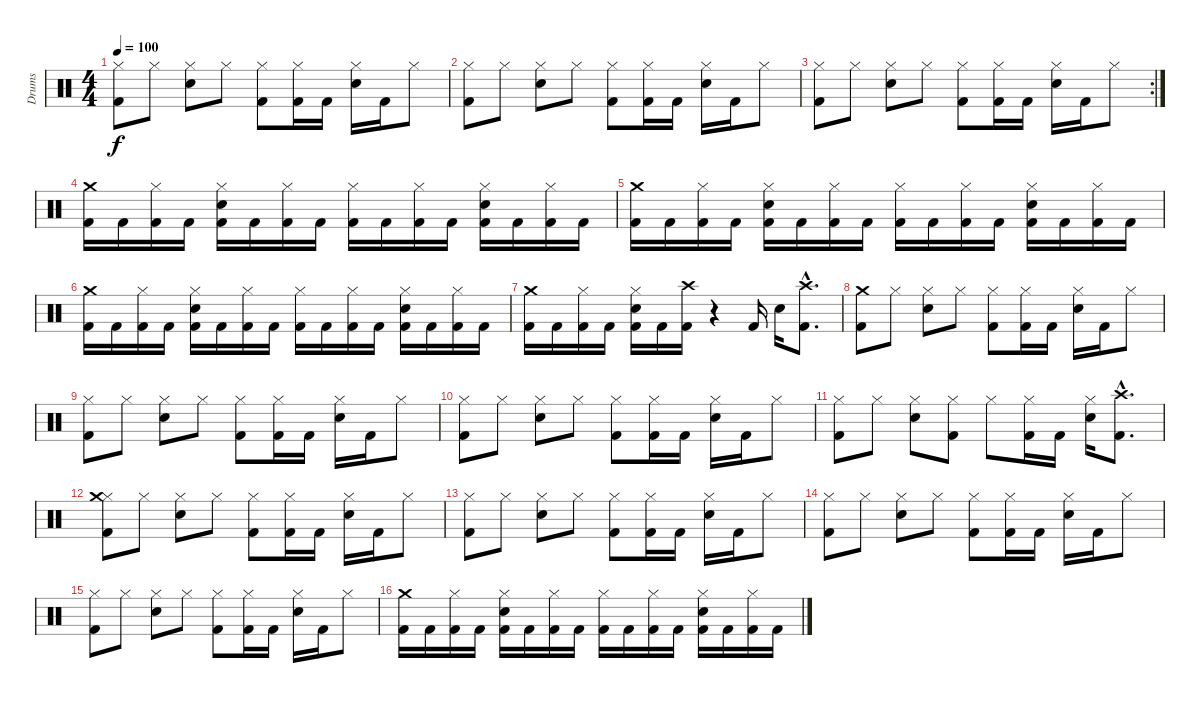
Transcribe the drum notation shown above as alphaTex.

\track ("Drums" "Drums") {instrument percussion}
\staff {score}
\articulation defaults
\ts (4 4)
\tempo 100
\clef neutral
\ks c
("Kick (hit) 2" "Hi-Hat (closed)").8{dy f} "Hi-Hat (closed)".8 ("Hi-Hat (closed)" "Snare (hit) 2").8 "Hi-Hat (closed)".8 ("Kick (hit) 2" "Hi-Hat (closed)").8 ("Kick (hit) 2" "Hi-Hat (closed)").16 "Kick (hit) 2".16 ("Hi-Hat (closed)" "Snare (hit) 2").16 "Kick (hit) 2".16 "Hi-Hat (closed)".8 |
("Kick (hit) 2" "Hi-Hat (closed)").8 "Hi-Hat (closed)".8 ("Hi-Hat (closed)" "Snare (hit) 2").8 "Hi-Hat (closed)".8 ("Kick (hit) 2" "Hi-Hat (closed)").8 ("Kick (hit) 2" "Hi-Hat (closed)").16 "Kick (hit) 2".16 ("Hi-Hat (closed)" "Snare (hit) 2").16 "Kick (hit) 2".16 "Hi-Hat (closed)".8 |
\rc 2
("Kick (hit) 2" "Hi-Hat (closed)").8 "Hi-Hat (closed)".8 ("Hi-Hat (closed)" "Snare (hit) 2").8 "Hi-Hat (closed)".8 ("Kick (hit) 2" "Hi-Hat (closed)").8 ("Kick (hit) 2" "Hi-Hat (closed)").16 "Kick (hit) 2".16 ("Hi-Hat (closed)" "Snare (hit) 2").16 "Kick (hit) 2".16 "Hi-Hat (closed)".8 |
("Kick (hit) 2" "Crash medium (hit)").16 "Kick (hit) 2".16 ("Kick (hit) 2" "Hi-Hat (closed)").16 "Kick (hit) 2".16 ("Kick (hit) 2" "Hi-Hat (closed)" "Snare (hit) 2").16 "Kick (hit) 2".16 ("Kick (hit) 2" "Hi-Hat (closed)").16 "Kick (hit) 2".16 ("Kick (hit) 2" "Hi-Hat (closed)").16 "Kick (hit) 2".16 ("Kick (hit) 2" "Hi-Hat (closed)").16 "Kick (hit) 2".16 ("Kick (hit) 2" "Hi-Hat (closed)" "Snare (hit) 2").16 "Kick (hit) 2".16 ("Kick (hit) 2" "Hi-Hat (closed)").16 "Kick (hit) 2".16 |
("Kick (hit) 2" "Crash medium (hit)").16 "Kick (hit) 2".16 ("Kick (hit) 2" "Hi-Hat (closed)").16 "Kick (hit) 2".16 ("Kick (hit) 2" "Hi-Hat (closed)" "Snare (hit) 2").16 "Kick (hit) 2".16 ("Kick (hit) 2" "Hi-Hat (closed)").16 "Kick (hit) 2".16 ("Kick (hit) 2" "Hi-Hat (closed)").16 "Kick (hit) 2".16 ("Kick (hit) 2" "Hi-Hat (closed)").16 "Kick (hit) 2".16 ("Kick (hit) 2" "Hi-Hat (closed)" "Snare (hit) 2").16 "Kick (hit) 2".16 ("Kick (hit) 2" "Hi-Hat (closed)").16 "Kick (hit) 2".16 |
("Kick (hit) 2" "Crash medium (hit)").16 "Kick (hit) 2".16 ("Kick (hit) 2" "Hi-Hat (closed)").16 "Kick (hit) 2".16 ("Kick (hit) 2" "Hi-Hat (closed)" "Snare (hit) 2").16 "Kick (hit) 2".16 ("Kick (hit) 2" "Hi-Hat (closed)").16 "Kick (hit) 2".16 ("Kick (hit) 2" "Hi-Hat (closed)").16 "Kick (hit) 2".16 ("Kick (hit) 2" "Hi-Hat (closed)").16 "Kick (hit) 2".16 ("Kick (hit) 2" "Hi-Hat (closed)" "Snare (hit) 2").16 "Kick (hit) 2".16 ("Kick (hit) 2" "Hi-Hat (closed)").16 "Kick (hit) 2".16 |
("Kick (hit) 2" "Crash medium (hit)").16 "Kick (hit) 2".16 ("Kick (hit) 2" "Hi-Hat (closed)").16 "Kick (hit) 2".16 ("Kick (hit) 2" "Hi-Hat (closed)" "Snare (hit) 2").16 "Kick (hit) 2".16 ("Kick (hit) 2" "Crash high (hit)").16 r.4 "Kick (hit) 2".16 "Snare (hit) 2".16 ("Kick (hit) 2"{hac} "Crash high (hit)"{hac}).8{d} |
("Kick (hit) 2" "Crash medium (hit)").8 "Hi-Hat (closed)".8 ("Hi-Hat (closed)" "Snare (hit) 2").8 "Hi-Hat (closed)".8 ("Kick (hit) 2" "Hi-Hat (closed)").8 ("Kick (hit) 2" "Hi-Hat (closed)").16 "Kick (hit) 2".16 ("Hi-Hat (closed)" "Snare (hit) 2").16 "Kick (hit) 2".16 "Hi-Hat (closed)".8 |
("Kick (hit) 2" "Hi-Hat (closed)").8 "Hi-Hat (closed)".8 ("Hi-Hat (closed)" "Snare (hit) 2").8 "Hi-Hat (closed)".8 ("Kick (hit) 2" "Hi-Hat (closed)").8 ("Kick (hit) 2" "Hi-Hat (closed)").16 "Kick (hit) 2".16 ("Hi-Hat (closed)" "Snare (hit) 2").16 "Kick (hit) 2".16 "Hi-Hat (closed)".8 |
("Kick (hit) 2" "Hi-Hat (closed)").8 "Hi-Hat (closed)".8 ("Hi-Hat (closed)" "Snare (hit) 2").8 "Hi-Hat (closed)".8 ("Kick (hit) 2" "Hi-Hat (closed)").8 ("Kick (hit) 2" "Hi-Hat (closed)").16 "Kick (hit) 2".16 ("Hi-Hat (closed)" "Snare (hit) 2").16 "Kick (hit) 2".16 "Hi-Hat (closed)".8 |
("Kick (hit) 2" "Hi-Hat (closed)").8 "Hi-Hat (closed)".8 ("Hi-Hat (closed)" "Snare (hit) 2").8 ("Kick (hit) 2" "Hi-Hat (closed)").8 "Hi-Hat (closed)".8 ("Kick (hit) 2" "Hi-Hat (closed)").16 "Kick (hit) 2".16 ("Hi-Hat (closed)" "Snare (hit) 2").16 ("Kick (hit) 2"{hac} "Crash high (hit)"{hac}).8{d} |
("Kick (hit) 2" "Hi-Hat (closed)" "Crash medium (hit)").8 "Hi-Hat (closed)".8 ("Hi-Hat (closed)" "Snare (hit) 2").8 "Hi-Hat (closed)".8 ("Kick (hit) 2" "Hi-Hat (closed)").8 ("Kick (hit) 2" "Hi-Hat (closed)").16 "Kick (hit) 2".16 ("Hi-Hat (closed)" "Snare (hit) 2").16 "Kick (hit) 2".16 "Hi-Hat (closed)".8 |
("Kick (hit) 2" "Hi-Hat (closed)").8 "Hi-Hat (closed)".8 ("Hi-Hat (closed)" "Snare (hit) 2").8 "Hi-Hat (closed)".8 ("Kick (hit) 2" "Hi-Hat (closed)").8 ("Kick (hit) 2" "Hi-Hat (closed)").16 "Kick (hit) 2".16 ("Hi-Hat (closed)" "Snare (hit) 2").16 "Kick (hit) 2".16 "Hi-Hat (closed)".8 |
("Kick (hit) 2" "Hi-Hat (closed)").8 "Hi-Hat (closed)".8 ("Hi-Hat (closed)" "Snare (hit) 2").8 "Hi-Hat (closed)".8 ("Kick (hit) 2" "Hi-Hat (closed)").8 ("Kick (hit) 2" "Hi-Hat (closed)").16 "Kick (hit) 2".16 ("Hi-Hat (closed)" "Snare (hit) 2").16 "Kick (hit) 2".16 "Hi-Hat (closed)".8 |
("Kick (hit) 2" "Hi-Hat (closed)").8 "Hi-Hat (closed)".8 ("Hi-Hat (closed)" "Snare (hit) 2").8 "Hi-Hat (closed)".8 ("Kick (hit) 2" "Hi-Hat (closed)").8 ("Kick (hit) 2" "Hi-Hat (closed)").16 "Kick (hit) 2".16 ("Hi-Hat (closed)" "Snare (hit) 2").16 "Kick (hit) 2".16 "Hi-Hat (closed)".8 |
("Kick (hit) 2" "Crash medium (hit)").16 "Kick (hit) 2".16 ("Kick (hit) 2" "Hi-Hat (closed)").16 "Kick (hit) 2".16 ("Kick (hit) 2" "Hi-Hat (closed)" "Snare (hit) 2").16 "Kick (hit) 2".16 ("Kick (hit) 2" "Hi-Hat (closed)").16 "Kick (hit) 2".16 ("Kick (hit) 2" "Hi-Hat (closed)").16 "Kick (hit) 2".16 ("Kick (hit) 2" "Hi-Hat (closed)").16 "Kick (hit) 2".16 ("Kick (hit) 2" "Hi-Hat (closed)" "Snare (hit) 2").16 "Kick (hit) 2".16 ("Kick (hit) 2" "Hi-Hat (closed)").16 "Kick (hit) 2".16
